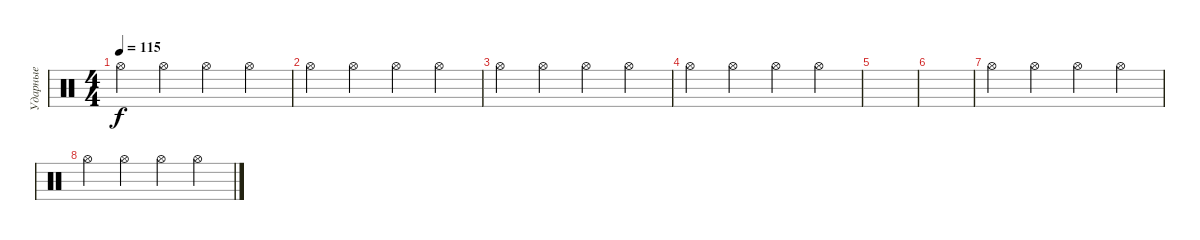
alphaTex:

\track ("Ударные" "Ударные") {instrument percussion}
\staff {score}
\articulation defaults
\ts (4 4)
\tempo 115
\clef neutral
\ks c "Hi-Hat (open)".4{dy f} "Hi-Hat (open)".4 "Hi-Hat (open)".4 "Hi-Hat (open)".4
|
"Hi-Hat (open)".4 "Hi-Hat (open)".4 "Hi-Hat (open)".4 "Hi-Hat (open)".4 |
"Hi-Hat (open)".4 "Hi-Hat (open)".4 "Hi-Hat (open)".4 "Hi-Hat (open)".4 |
"Hi-Hat (open)".4 "Hi-Hat (open)".4 "Hi-Hat (open)".4 "Hi-Hat (open)".4 |
|
|
"Hi-Hat (open)".4 "Hi-Hat (open)".4 "Hi-Hat (open)".4 "Hi-Hat (open)".4 |
"Hi-Hat (open)".4 "Hi-Hat (open)".4 "Hi-Hat (open)".4 "Hi-Hat (open)".4
